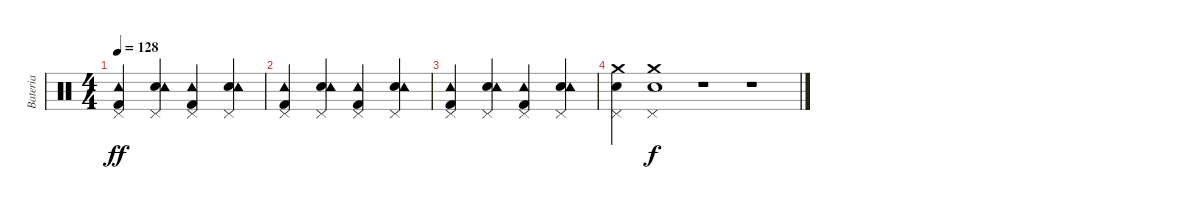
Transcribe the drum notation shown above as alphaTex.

\track ("Bateria" "Bateria") {instrument percussion}
\staff {score}
\articulation defaults
\ts (4 4)
\tempo 128
\clef neutral
\ks c
("Pedal Hi-Hat (hit)" "Kick (hit) 2" "Tambourine (hit)").4{dy ff} ("Pedal Hi-Hat (hit)" "Electric Snare (hit)" "Tambourine (hit)").4 ("Pedal Hi-Hat (hit)" "Kick (hit) 2" "Tambourine (hit)").4 ("Pedal Hi-Hat (hit)" "Electric Snare (hit)" "Tambourine (hit)").4 |
("Pedal Hi-Hat (hit)" "Kick (hit) 2" "Tambourine (hit)").4 ("Pedal Hi-Hat (hit)" "Electric Snare (hit)" "Tambourine (hit)").4 ("Pedal Hi-Hat (hit)" "Kick (hit) 2" "Tambourine (hit)").4 ("Pedal Hi-Hat (hit)" "Electric Snare (hit)" "Tambourine (hit)").4 |
("Pedal Hi-Hat (hit)" "Kick (hit) 2" "Tambourine (hit)").4 ("Pedal Hi-Hat (hit)" "Electric Snare (hit)" "Tambourine (hit)").4 ("Pedal Hi-Hat (hit)" "Kick (hit) 2" "Tambourine (hit)").4 ("Pedal Hi-Hat (hit)" "Electric Snare (hit)" "Tambourine (hit)").4 |
("Pedal Hi-Hat (hit)" "Electric Snare (hit)" "Crash medium (hit)").4 ("Pedal Hi-Hat (hit)" "Electric Snare (hit)" "Crash medium (hit)").1{dy f} r.1 r.1
